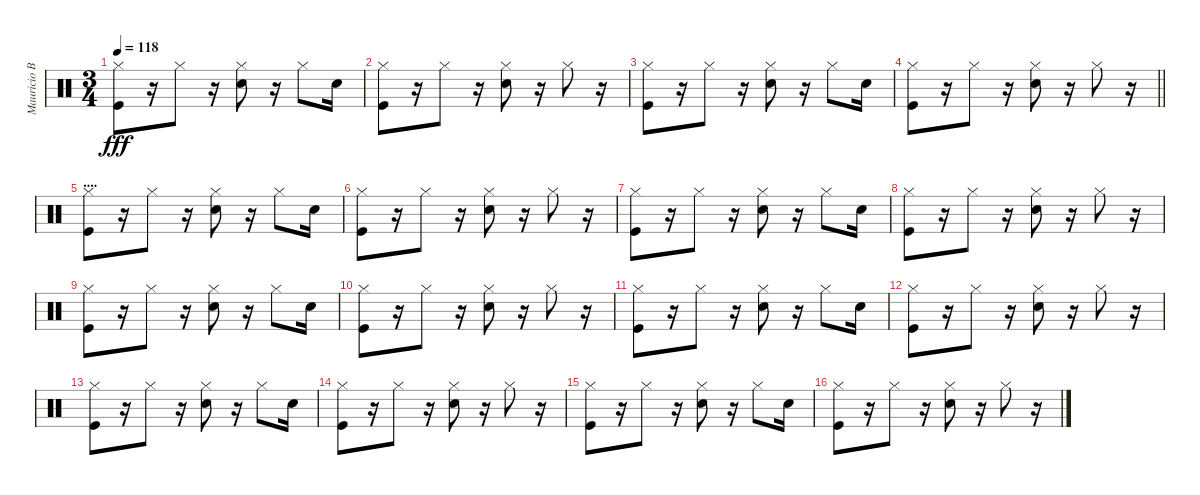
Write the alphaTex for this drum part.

\track ("Mauricio Basualto" "Mauricio B") {instrument percussion}
\staff {score}
\articulation defaults
\ts (3 4)
\tempo 118
\clef neutral
\ks c
("Hi-Hat (closed)" "Kick (hit)").8{dy fff} r.16 "Hi-Hat (closed)".8 r.16 ("Hi-Hat (closed)" "Snare (hit) 2").8 r.16 "Hi-Hat (closed)".8 "Snare (hit) 2".16 |
("Hi-Hat (closed)" "Kick (hit)").8 r.16 "Hi-Hat (closed)".8 r.16 ("Hi-Hat (closed)" "Snare (hit) 2").8 r.16 "Hi-Hat (closed)".8 r.16 |
("Hi-Hat (closed)" "Kick (hit)").8 r.16 "Hi-Hat (closed)".8 r.16 ("Hi-Hat (closed)" "Snare (hit) 2").8 r.16 "Hi-Hat (closed)".8 "Snare (hit) 2".16 |
\barLineRight lightlight
("Hi-Hat (closed)" "Kick (hit)").8 r.16 "Hi-Hat (closed)".8 r.16 ("Hi-Hat (closed)" "Snare (hit) 2").8 r.16 "Hi-Hat (closed)".8 r.16 |
\section ("" "....")
("Hi-Hat (closed)" "Kick (hit)").8 r.16 "Hi-Hat (closed)".8 r.16 ("Hi-Hat (closed)" "Snare (hit) 2").8 r.16 "Hi-Hat (closed)".8 "Snare (hit) 2".16 |
("Hi-Hat (closed)" "Kick (hit)").8 r.16 "Hi-Hat (closed)".8 r.16 ("Hi-Hat (closed)" "Snare (hit) 2").8 r.16 "Hi-Hat (closed)".8 r.16 |
("Hi-Hat (closed)" "Kick (hit)").8 r.16 "Hi-Hat (closed)".8 r.16 ("Hi-Hat (closed)" "Snare (hit) 2").8 r.16 "Hi-Hat (closed)".8 "Snare (hit) 2".16 |
("Hi-Hat (closed)" "Kick (hit)").8 r.16 "Hi-Hat (closed)".8 r.16 ("Hi-Hat (closed)" "Snare (hit) 2").8 r.16 "Hi-Hat (closed)".8 r.16 |
("Hi-Hat (closed)" "Kick (hit)").8 r.16 "Hi-Hat (closed)".8 r.16 ("Hi-Hat (closed)" "Snare (hit) 2").8 r.16 "Hi-Hat (closed)".8 "Snare (hit) 2".16 |
("Hi-Hat (closed)" "Kick (hit)").8 r.16 "Hi-Hat (closed)".8 r.16 ("Hi-Hat (closed)" "Snare (hit) 2").8 r.16 "Hi-Hat (closed)".8 r.16 |
("Hi-Hat (closed)" "Kick (hit)").8 r.16 "Hi-Hat (closed)".8 r.16 ("Hi-Hat (closed)" "Snare (hit) 2").8 r.16 "Hi-Hat (closed)".8 "Snare (hit) 2".16 |
("Hi-Hat (closed)" "Kick (hit)").8 r.16 "Hi-Hat (closed)".8 r.16 ("Hi-Hat (closed)" "Snare (hit) 2").8 r.16 "Hi-Hat (closed)".8 r.16 |
("Hi-Hat (closed)" "Kick (hit)").8 r.16 "Hi-Hat (closed)".8 r.16 ("Hi-Hat (closed)" "Snare (hit) 2").8 r.16 "Hi-Hat (closed)".8 "Snare (hit) 2".16 |
("Hi-Hat (closed)" "Kick (hit)").8 r.16 "Hi-Hat (closed)".8 r.16 ("Hi-Hat (closed)" "Snare (hit) 2").8 r.16 "Hi-Hat (closed)".8 r.16 |
("Hi-Hat (closed)" "Kick (hit)").8 r.16 "Hi-Hat (closed)".8 r.16 ("Hi-Hat (closed)" "Snare (hit) 2").8 r.16 "Hi-Hat (closed)".8 "Snare (hit) 2".16 |
("Hi-Hat (closed)" "Kick (hit)").8 r.16 "Hi-Hat (closed)".8 r.16 ("Hi-Hat (closed)" "Snare (hit) 2").8 r.16 "Hi-Hat (closed)".8 r.16
